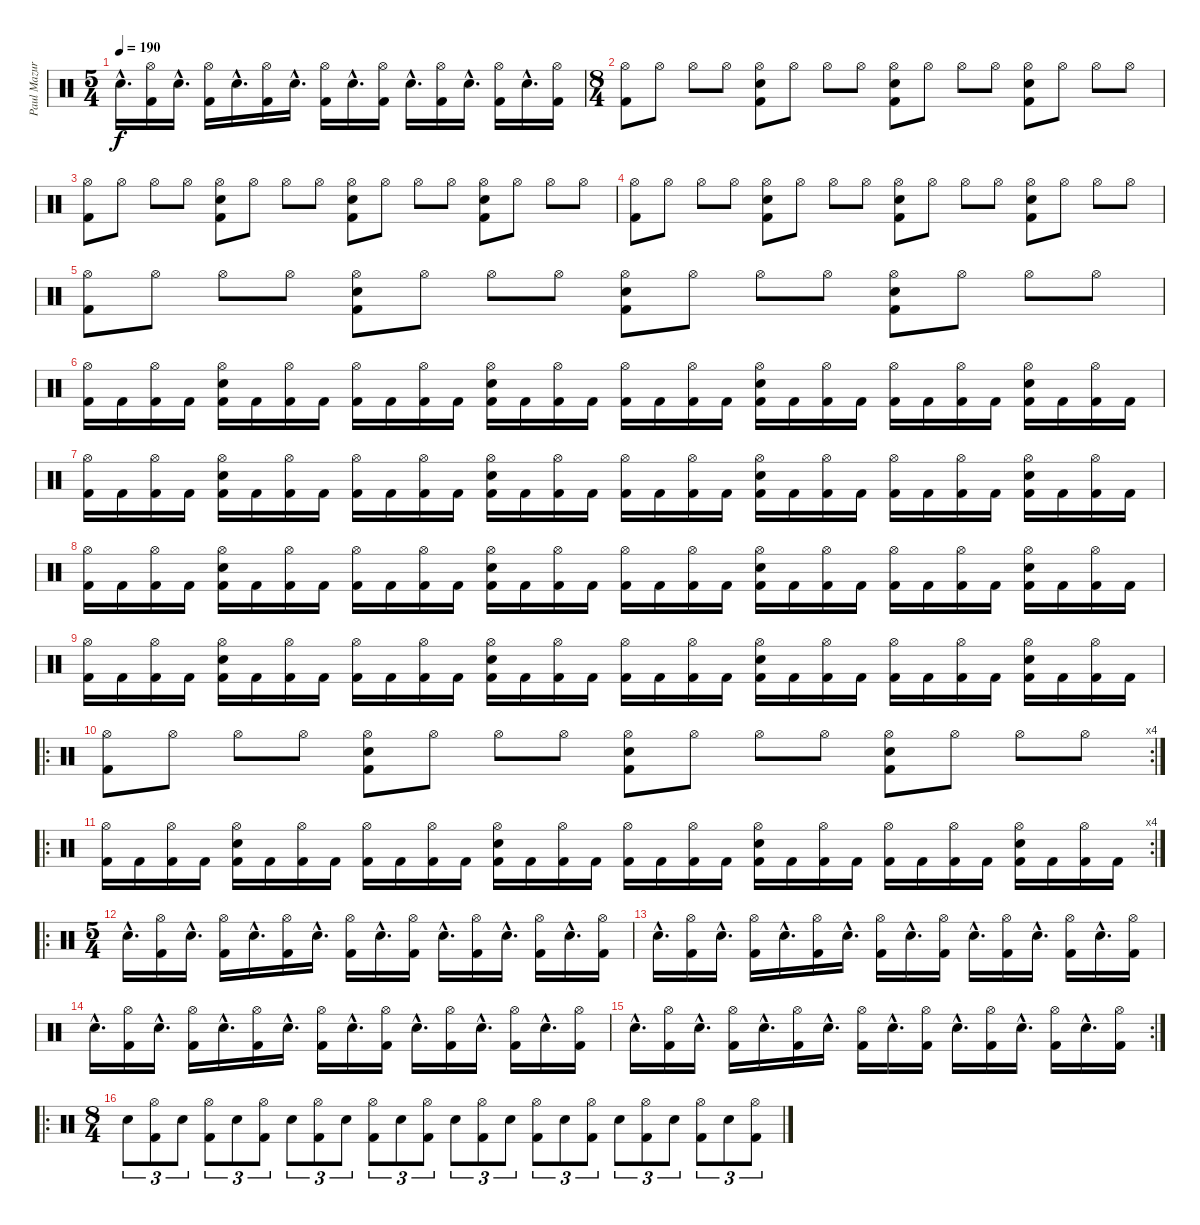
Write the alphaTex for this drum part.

\track ("Paul Mazurkiewicz" "Paul Mazur") {instrument percussion}
\staff {score}
\articulation defaults
\ts (5 4)
\tempo 190
\clef neutral
\ks c "Snare (hit) 2"{hac}.16{d dy f}
("Hi-Hat (open)" "Kick (hit) 2").16 "Snare (hit) 2"{hac}.16{d} ("Hi-Hat (open)" "Kick (hit) 2").16 "Snare (hit) 2"{hac}.16{d} ("Hi-Hat (open)" "Kick (hit) 2").16 "Snare (hit) 2"{hac}.16{d} ("Hi-Hat (open)" "Kick (hit) 2").16 "Snare (hit) 2"{hac}.16{d} ("Hi-Hat (open)" "Kick (hit) 2").16 "Snare (hit) 2"{hac}.16{d} ("Hi-Hat (open)" "Kick (hit) 2").16 "Snare (hit) 2"{hac}.16{d} ("Hi-Hat (open)" "Kick (hit) 2").16 "Snare (hit) 2"{hac}.16{d} ("Hi-Hat (open)" "Kick (hit) 2").16 |
\ts (8 4)
("Hi-Hat (open)" "Kick (hit) 2").8 "Hi-Hat (open)".8 "Hi-Hat (open)".8 "Hi-Hat (open)".8 ("Hi-Hat (open)" "Snare (hit) 2" "Kick (hit) 2").8 "Hi-Hat (open)".8 "Hi-Hat (open)".8 "Hi-Hat (open)".8 ("Hi-Hat (open)" "Snare (hit) 2" "Kick (hit) 2").8 "Hi-Hat (open)".8 "Hi-Hat (open)".8 "Hi-Hat (open)".8 ("Hi-Hat (open)" "Snare (hit) 2" "Kick (hit) 2").8 "Hi-Hat (open)".8 "Hi-Hat (open)".8 "Hi-Hat (open)".8 |
("Hi-Hat (open)" "Kick (hit) 2").8 "Hi-Hat (open)".8 "Hi-Hat (open)".8 "Hi-Hat (open)".8 ("Hi-Hat (open)" "Snare (hit) 2" "Kick (hit) 2").8 "Hi-Hat (open)".8 "Hi-Hat (open)".8 "Hi-Hat (open)".8 ("Hi-Hat (open)" "Snare (hit) 2" "Kick (hit) 2").8 "Hi-Hat (open)".8 "Hi-Hat (open)".8 "Hi-Hat (open)".8 ("Hi-Hat (open)" "Snare (hit) 2" "Kick (hit) 2").8 "Hi-Hat (open)".8 "Hi-Hat (open)".8 "Hi-Hat (open)".8 |
("Hi-Hat (open)" "Kick (hit) 2").8 "Hi-Hat (open)".8 "Hi-Hat (open)".8 "Hi-Hat (open)".8 ("Hi-Hat (open)" "Snare (hit) 2" "Kick (hit) 2").8 "Hi-Hat (open)".8 "Hi-Hat (open)".8 "Hi-Hat (open)".8 ("Hi-Hat (open)" "Snare (hit) 2" "Kick (hit) 2").8 "Hi-Hat (open)".8 "Hi-Hat (open)".8 "Hi-Hat (open)".8 ("Hi-Hat (open)" "Snare (hit) 2" "Kick (hit) 2").8 "Hi-Hat (open)".8 "Hi-Hat (open)".8 "Hi-Hat (open)".8 |
("Hi-Hat (open)" "Kick (hit) 2").8 "Hi-Hat (open)".8 "Hi-Hat (open)".8 "Hi-Hat (open)".8 ("Hi-Hat (open)" "Snare (hit) 2" "Kick (hit) 2").8 "Hi-Hat (open)".8 "Hi-Hat (open)".8 "Hi-Hat (open)".8 ("Hi-Hat (open)" "Snare (hit) 2" "Kick (hit) 2").8 "Hi-Hat (open)".8 "Hi-Hat (open)".8 "Hi-Hat (open)".8 ("Hi-Hat (open)" "Snare (hit) 2" "Kick (hit) 2").8 "Hi-Hat (open)".8 "Hi-Hat (open)".8 "Hi-Hat (open)".8 |
("Hi-Hat (open)" "Kick (hit) 2").16 "Kick (hit) 2".16 ("Hi-Hat (open)" "Kick (hit) 2").16 "Kick (hit) 2".16 ("Hi-Hat (open)" "Snare (hit) 2" "Kick (hit) 2").16 "Kick (hit) 2".16 ("Hi-Hat (open)" "Kick (hit) 2").16 "Kick (hit) 2".16 ("Hi-Hat (open)" "Kick (hit) 2").16 "Kick (hit) 2".16 ("Hi-Hat (open)" "Kick (hit) 2").16 "Kick (hit) 2".16 ("Hi-Hat (open)" "Snare (hit) 2" "Kick (hit) 2").16 "Kick (hit) 2".16 ("Hi-Hat (open)" "Kick (hit) 2").16 "Kick (hit) 2".16 ("Hi-Hat (open)" "Kick (hit) 2").16 "Kick (hit) 2".16 ("Hi-Hat (open)" "Kick (hit) 2").16 "Kick (hit) 2".16 ("Hi-Hat (open)" "Snare (hit) 2" "Kick (hit) 2").16 "Kick (hit) 2".16 ("Hi-Hat (open)" "Kick (hit) 2").16 "Kick (hit) 2".16 ("Hi-Hat (open)" "Kick (hit) 2").16 "Kick (hit) 2".16 ("Hi-Hat (open)" "Kick (hit) 2").16 "Kick (hit) 2".16 ("Hi-Hat (open)" "Snare (hit) 2" "Kick (hit) 2").16 "Kick (hit) 2".16 ("Hi-Hat (open)" "Kick (hit) 2").16 "Kick (hit) 2".16 |
("Hi-Hat (open)" "Kick (hit) 2").16 "Kick (hit) 2".16 ("Hi-Hat (open)" "Kick (hit) 2").16 "Kick (hit) 2".16 ("Hi-Hat (open)" "Snare (hit) 2" "Kick (hit) 2").16 "Kick (hit) 2".16 ("Hi-Hat (open)" "Kick (hit) 2").16 "Kick (hit) 2".16 ("Hi-Hat (open)" "Kick (hit) 2").16 "Kick (hit) 2".16 ("Hi-Hat (open)" "Kick (hit) 2").16 "Kick (hit) 2".16 ("Hi-Hat (open)" "Snare (hit) 2" "Kick (hit) 2").16 "Kick (hit) 2".16 ("Hi-Hat (open)" "Kick (hit) 2").16 "Kick (hit) 2".16 ("Hi-Hat (open)" "Kick (hit) 2").16 "Kick (hit) 2".16 ("Hi-Hat (open)" "Kick (hit) 2").16 "Kick (hit) 2".16 ("Hi-Hat (open)" "Snare (hit) 2" "Kick (hit) 2").16 "Kick (hit) 2".16 ("Hi-Hat (open)" "Kick (hit) 2").16 "Kick (hit) 2".16 ("Hi-Hat (open)" "Kick (hit) 2").16 "Kick (hit) 2".16 ("Hi-Hat (open)" "Kick (hit) 2").16 "Kick (hit) 2".16 ("Hi-Hat (open)" "Snare (hit) 2" "Kick (hit) 2").16 "Kick (hit) 2".16 ("Hi-Hat (open)" "Kick (hit) 2").16 "Kick (hit) 2".16 |
("Hi-Hat (open)" "Kick (hit) 2").16 "Kick (hit) 2".16 ("Hi-Hat (open)" "Kick (hit) 2").16 "Kick (hit) 2".16 ("Hi-Hat (open)" "Snare (hit) 2" "Kick (hit) 2").16 "Kick (hit) 2".16 ("Hi-Hat (open)" "Kick (hit) 2").16 "Kick (hit) 2".16 ("Hi-Hat (open)" "Kick (hit) 2").16 "Kick (hit) 2".16 ("Hi-Hat (open)" "Kick (hit) 2").16 "Kick (hit) 2".16 ("Hi-Hat (open)" "Snare (hit) 2" "Kick (hit) 2").16 "Kick (hit) 2".16 ("Hi-Hat (open)" "Kick (hit) 2").16 "Kick (hit) 2".16 ("Hi-Hat (open)" "Kick (hit) 2").16 "Kick (hit) 2".16 ("Hi-Hat (open)" "Kick (hit) 2").16 "Kick (hit) 2".16 ("Hi-Hat (open)" "Snare (hit) 2" "Kick (hit) 2").16 "Kick (hit) 2".16 ("Hi-Hat (open)" "Kick (hit) 2").16 "Kick (hit) 2".16 ("Hi-Hat (open)" "Kick (hit) 2").16 "Kick (hit) 2".16 ("Hi-Hat (open)" "Kick (hit) 2").16 "Kick (hit) 2".16 ("Hi-Hat (open)" "Snare (hit) 2" "Kick (hit) 2").16 "Kick (hit) 2".16 ("Hi-Hat (open)" "Kick (hit) 2").16 "Kick (hit) 2".16 |
("Hi-Hat (open)" "Kick (hit) 2").16 "Kick (hit) 2".16 ("Hi-Hat (open)" "Kick (hit) 2").16 "Kick (hit) 2".16 ("Hi-Hat (open)" "Snare (hit) 2" "Kick (hit) 2").16 "Kick (hit) 2".16 ("Hi-Hat (open)" "Kick (hit) 2").16 "Kick (hit) 2".16 ("Hi-Hat (open)" "Kick (hit) 2").16 "Kick (hit) 2".16 ("Hi-Hat (open)" "Kick (hit) 2").16 "Kick (hit) 2".16 ("Hi-Hat (open)" "Snare (hit) 2" "Kick (hit) 2").16 "Kick (hit) 2".16 ("Hi-Hat (open)" "Kick (hit) 2").16 "Kick (hit) 2".16 ("Hi-Hat (open)" "Kick (hit) 2").16 "Kick (hit) 2".16 ("Hi-Hat (open)" "Kick (hit) 2").16 "Kick (hit) 2".16 ("Hi-Hat (open)" "Snare (hit) 2" "Kick (hit) 2").16 "Kick (hit) 2".16 ("Hi-Hat (open)" "Kick (hit) 2").16 "Kick (hit) 2".16 ("Hi-Hat (open)" "Kick (hit) 2").16 "Kick (hit) 2".16 ("Hi-Hat (open)" "Kick (hit) 2").16 "Kick (hit) 2".16 ("Hi-Hat (open)" "Snare (hit) 2" "Kick (hit) 2").16 "Kick (hit) 2".16 ("Hi-Hat (open)" "Kick (hit) 2").16 "Kick (hit) 2".16 |
\ro
\rc 4
("Hi-Hat (open)" "Kick (hit) 2").8 "Hi-Hat (open)".8 "Hi-Hat (open)".8 "Hi-Hat (open)".8 ("Hi-Hat (open)" "Snare (hit) 2" "Kick (hit) 2").8 "Hi-Hat (open)".8 "Hi-Hat (open)".8 "Hi-Hat (open)".8 ("Hi-Hat (open)" "Snare (hit) 2" "Kick (hit) 2").8 "Hi-Hat (open)".8 "Hi-Hat (open)".8 "Hi-Hat (open)".8 ("Hi-Hat (open)" "Snare (hit) 2" "Kick (hit) 2").8 "Hi-Hat (open)".8 "Hi-Hat (open)".8 "Hi-Hat (open)".8 |
\ro
\rc 4
("Hi-Hat (open)" "Kick (hit) 2").16 "Kick (hit) 2".16 ("Hi-Hat (open)" "Kick (hit) 2").16 "Kick (hit) 2".16 ("Hi-Hat (open)" "Snare (hit) 2" "Kick (hit) 2").16 "Kick (hit) 2".16 ("Hi-Hat (open)" "Kick (hit) 2").16 "Kick (hit) 2".16 ("Hi-Hat (open)" "Kick (hit) 2").16 "Kick (hit) 2".16 ("Hi-Hat (open)" "Kick (hit) 2").16 "Kick (hit) 2".16 ("Hi-Hat (open)" "Snare (hit) 2" "Kick (hit) 2").16 "Kick (hit) 2".16 ("Hi-Hat (open)" "Kick (hit) 2").16 "Kick (hit) 2".16 ("Hi-Hat (open)" "Kick (hit) 2").16 "Kick (hit) 2".16 ("Hi-Hat (open)" "Kick (hit) 2").16 "Kick (hit) 2".16 ("Hi-Hat (open)" "Snare (hit) 2" "Kick (hit) 2").16 "Kick (hit) 2".16 ("Hi-Hat (open)" "Kick (hit) 2").16 "Kick (hit) 2".16 ("Hi-Hat (open)" "Kick (hit) 2").16 "Kick (hit) 2".16 ("Hi-Hat (open)" "Kick (hit) 2").16 "Kick (hit) 2".16 ("Hi-Hat (open)" "Snare (hit) 2" "Kick (hit) 2").16 "Kick (hit) 2".16 ("Hi-Hat (open)" "Kick (hit) 2").16 "Kick (hit) 2".16 |
\ro
\ts (5 4)
"Snare (hit) 2"{hac}.16{d} ("Hi-Hat (open)" "Kick (hit) 2").16 "Snare (hit) 2"{hac}.16{d} ("Hi-Hat (open)" "Kick (hit) 2").16 "Snare (hit) 2"{hac}.16{d} ("Hi-Hat (open)" "Kick (hit) 2").16 "Snare (hit) 2"{hac}.16{d} ("Hi-Hat (open)" "Kick (hit) 2").16 "Snare (hit) 2"{hac}.16{d} ("Hi-Hat (open)" "Kick (hit) 2").16 "Snare (hit) 2"{hac}.16{d} ("Hi-Hat (open)" "Kick (hit) 2").16 "Snare (hit) 2"{hac}.16{d} ("Hi-Hat (open)" "Kick (hit) 2").16 "Snare (hit) 2"{hac}.16{d} ("Hi-Hat (open)" "Kick (hit) 2").16 |
"Snare (hit) 2"{hac}.16{d} ("Hi-Hat (open)" "Kick (hit) 2").16 "Snare (hit) 2"{hac}.16{d} ("Hi-Hat (open)" "Kick (hit) 2").16 "Snare (hit) 2"{hac}.16{d} ("Hi-Hat (open)" "Kick (hit) 2").16 "Snare (hit) 2"{hac}.16{d} ("Hi-Hat (open)" "Kick (hit) 2").16 "Snare (hit) 2"{hac}.16{d} ("Hi-Hat (open)" "Kick (hit) 2").16 "Snare (hit) 2"{hac}.16{d} ("Hi-Hat (open)" "Kick (hit) 2").16 "Snare (hit) 2"{hac}.16{d} ("Hi-Hat (open)" "Kick (hit) 2").16 "Snare (hit) 2"{hac}.16{d} ("Hi-Hat (open)" "Kick (hit) 2").16 |
"Snare (hit) 2"{hac}.16{d} ("Hi-Hat (open)" "Kick (hit) 2").16 "Snare (hit) 2"{hac}.16{d} ("Hi-Hat (open)" "Kick (hit) 2").16 "Snare (hit) 2"{hac}.16{d} ("Hi-Hat (open)" "Kick (hit) 2").16 "Snare (hit) 2"{hac}.16{d} ("Hi-Hat (open)" "Kick (hit) 2").16 "Snare (hit) 2"{hac}.16{d} ("Hi-Hat (open)" "Kick (hit) 2").16 "Snare (hit) 2"{hac}.16{d} ("Hi-Hat (open)" "Kick (hit) 2").16 "Snare (hit) 2"{hac}.16{d} ("Hi-Hat (open)" "Kick (hit) 2").16 "Snare (hit) 2"{hac}.16{d} ("Hi-Hat (open)" "Kick (hit) 2").16 |
\rc 2 "Snare (hit) 2"{hac}.16{d}
("Hi-Hat (open)" "Kick (hit) 2").16 "Snare (hit) 2"{hac}.16{d} ("Hi-Hat (open)" "Kick (hit) 2").16 "Snare (hit) 2"{hac}.16{d} ("Hi-Hat (open)" "Kick (hit) 2").16 "Snare (hit) 2"{hac}.16{d} ("Hi-Hat (open)" "Kick (hit) 2").16 "Snare (hit) 2"{hac}.16{d} ("Hi-Hat (open)" "Kick (hit) 2").16 "Snare (hit) 2"{hac}.16{d} ("Hi-Hat (open)" "Kick (hit) 2").16 "Snare (hit) 2"{hac}.16{d} ("Hi-Hat (open)" "Kick (hit) 2").16 "Snare (hit) 2"{hac}.16{d} ("Hi-Hat (open)" "Kick (hit) 2").16 |
\ro
\ts (8 4)
"Snare (hit) 2".8{tu (3 2)} ("Hi-Hat (open)" "Kick (hit) 2").8{tu (3 2)} "Snare (hit) 2".8{tu (3 2)} ("Hi-Hat (open)" "Kick (hit) 2").8{tu (3 2)} "Snare (hit) 2".8{tu (3 2)} ("Hi-Hat (open)" "Kick (hit) 2").8{tu (3 2)} "Snare (hit) 2".8{tu (3 2)} ("Hi-Hat (open)" "Kick (hit) 2").8{tu (3 2)} "Snare (hit) 2".8{tu (3 2)} ("Hi-Hat (open)" "Kick (hit) 2").8{tu (3 2)} "Snare (hit) 2".8{tu (3 2)} ("Hi-Hat (open)" "Kick (hit) 2").8{tu (3 2)} "Snare (hit) 2".8{tu (3 2)} ("Hi-Hat (open)" "Kick (hit) 2").8{tu (3 2)} "Snare (hit) 2".8{tu (3 2)} ("Hi-Hat (open)" "Kick (hit) 2").8{tu (3 2)} "Snare (hit) 2".8{tu (3 2)} ("Hi-Hat (open)" "Kick (hit) 2").8{tu (3 2)} "Snare (hit) 2".8{tu (3 2)} ("Hi-Hat (open)" "Kick (hit) 2").8{tu (3 2)} "Snare (hit) 2".8{tu (3 2)} ("Hi-Hat (open)" "Kick (hit) 2").8{tu (3 2)} "Snare (hit) 2".8{tu (3 2)} ("Hi-Hat (open)" "Kick (hit) 2").8{tu (3 2)}
